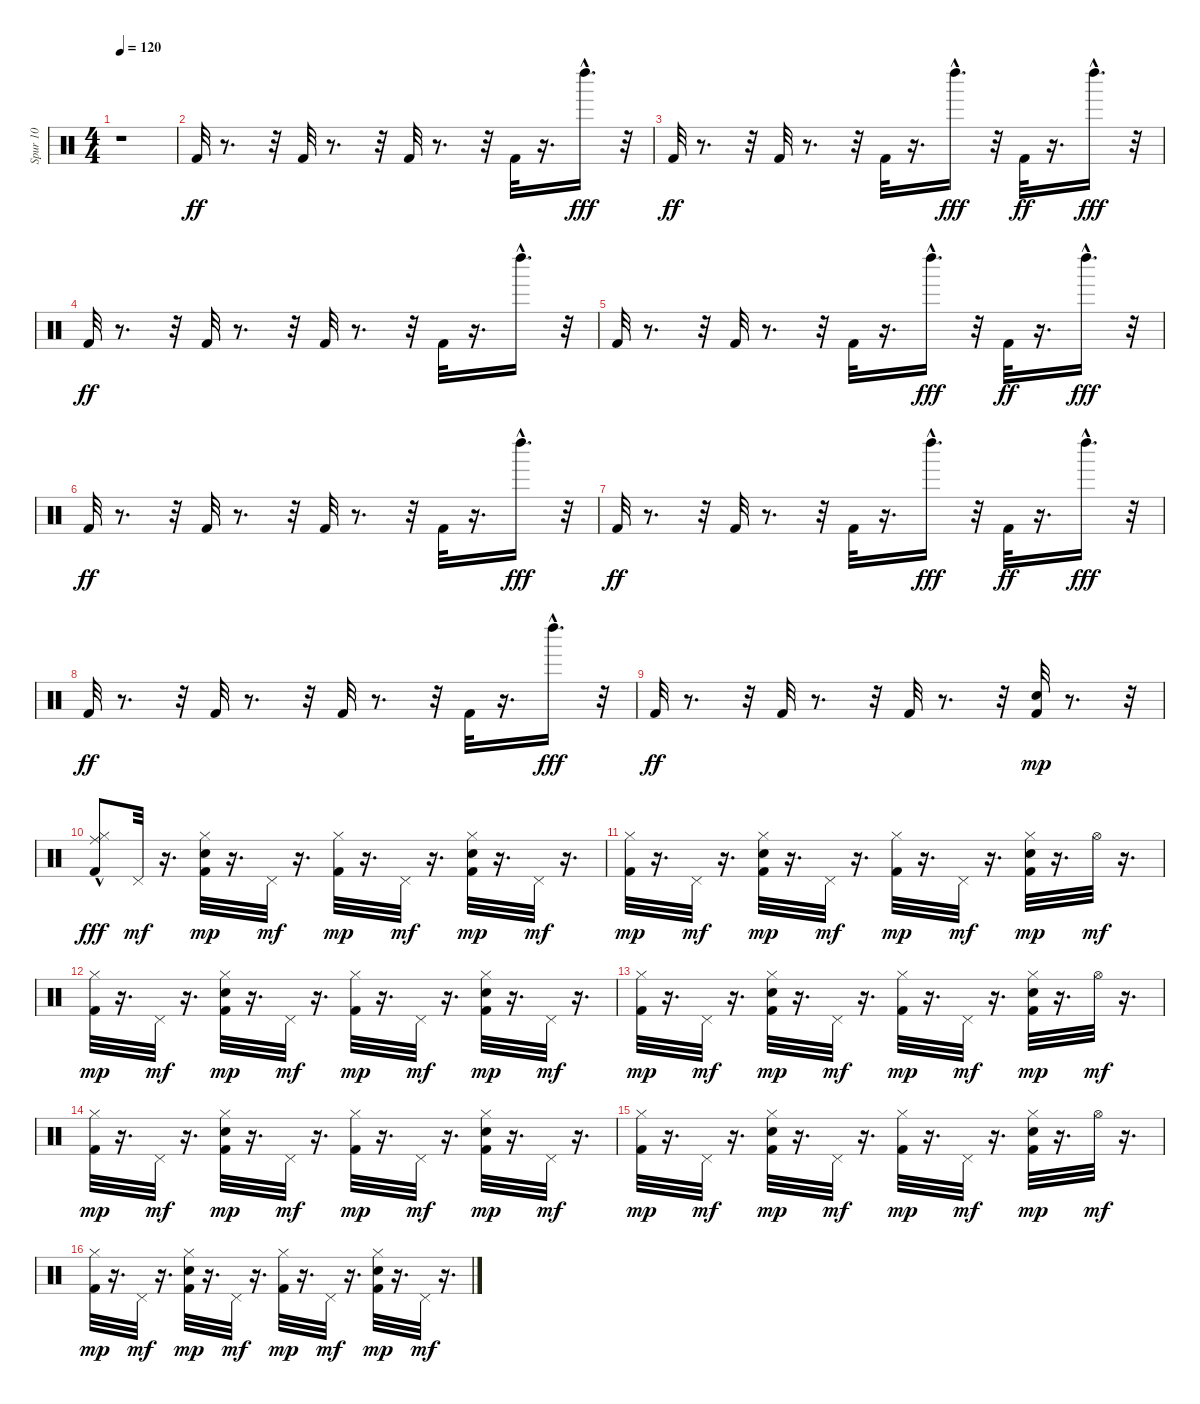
\track ("Spur 10" "Spur 10") {instrument percussion}
\staff {score}
\articulation defaults
\ts (4 4)
\tempo 120
\clef neutral
\ks c
r.1{dy ff} |
"Kick (hit) 2".32 r.8{d} r.32 "Kick (hit) 2".32 r.8{d} r.32 "Kick (hit) 2".32 r.8{d} r.32 "Kick (hit) 2".32 r.16{d} "Left Maraca (hit)"{hac}.16{d dy fff} r.32 |
"Kick (hit) 2".32{dy ff} r.8{d} r.32 "Kick (hit) 2".32 r.8{d} r.32 "Kick (hit) 2".32 r.16{d} "Left Maraca (hit)"{hac}.16{d dy fff} r.32 "Kick (hit) 2".32{dy ff} r.16{d} "Left Maraca (hit)"{hac}.16{d dy fff} r.32 |
"Kick (hit) 2".32{dy ff} r.8{d} r.32 "Kick (hit) 2".32 r.8{d} r.32 "Kick (hit) 2".32 r.8{d} r.32 "Kick (hit) 2".32 r.16{d} "Left Maraca (hit)"{hac}.16{d} r.32 |
"Kick (hit) 2".32 r.8{d} r.32 "Kick (hit) 2".32 r.8{d} r.32 "Kick (hit) 2".32 r.16{d} "Left Maraca (hit)"{hac}.16{d dy fff} r.32 "Kick (hit) 2".32{dy ff} r.16{d} "Left Maraca (hit)"{hac}.16{d dy fff} r.32 |
"Kick (hit) 2".32{dy ff} r.8{d} r.32 "Kick (hit) 2".32 r.8{d} r.32 "Kick (hit) 2".32 r.8{d} r.32 "Kick (hit) 2".32 r.16{d} "Left Maraca (hit)"{hac}.16{d dy fff} r.32 |
"Kick (hit) 2".32{dy ff} r.8{d} r.32 "Kick (hit) 2".32 r.8{d} r.32 "Kick (hit) 2".32 r.16{d} "Left Maraca (hit)"{hac}.16{d dy fff} r.32 "Kick (hit) 2".32{dy ff} r.16{d} "Left Maraca (hit)"{hac}.16{d dy fff} r.32 |
"Kick (hit) 2".32{dy ff} r.8{d} r.32 "Kick (hit) 2".32 r.8{d} r.32 "Kick (hit) 2".32 r.8{d} r.32 "Kick (hit) 2".32 r.16{d} "Left Maraca (hit)"{hac}.16{d dy fff} r.32 |
"Kick (hit) 2".32{dy ff} r.8{d} r.32 "Kick (hit) 2".32 r.8{d} r.32 "Kick (hit) 2".32 r.8{d} r.32 ("Kick (hit) 2" "Electric Snare (hit)").32{dy mp} r.8{d} r.32 |
("Kick (hit) 2" "Hi-Hat (closed)" "Ride (middle)"{hac}).8{dy fff} "Pedal Hi-Hat (hit)".32{dy mf} r.16{d} ("Electric Snare (hit)" "Kick (hit) 2" "Hi-Hat (closed)").32{dy mp} r.16{d} "Pedal Hi-Hat (hit)".32{dy mf} r.16{d} ("Kick (hit) 2" "Hi-Hat (closed)").32{dy mp} r.16{d} "Pedal Hi-Hat (hit)".32{dy mf} r.16{d} ("Kick (hit) 2" "Electric Snare (hit)" "Hi-Hat (closed)").32{dy mp} r.16{d} "Pedal Hi-Hat (hit)".32{dy mf} r.16{d} |
("Kick (hit) 2" "Hi-Hat (closed)").32{dy mp} r.16{d} "Pedal Hi-Hat (hit)".32{dy mf} r.16{d} ("Kick (hit) 2" "Electric Snare (hit)" "Hi-Hat (closed)").32{dy mp} r.16{d} "Pedal Hi-Hat (hit)".32{dy mf} r.16{d} ("Kick (hit) 2" "Hi-Hat (closed)").32{dy mp} r.16{d} "Pedal Hi-Hat (hit)".32{dy mf} r.16{d} ("Kick (hit) 2" "Electric Snare (hit)" "Hi-Hat (closed)").32{dy mp} r.16{d} "Hi-Hat (open)".32{dy mf} r.16{d} |
("Kick (hit) 2" "Hi-Hat (closed)").32{dy mp} r.16{d} "Pedal Hi-Hat (hit)".32{dy mf} r.16{d} ("Kick (hit) 2" "Electric Snare (hit)" "Hi-Hat (closed)").32{dy mp} r.16{d} "Pedal Hi-Hat (hit)".32{dy mf} r.16{d} ("Kick (hit) 2" "Hi-Hat (closed)").32{dy mp} r.16{d} "Pedal Hi-Hat (hit)".32{dy mf} r.16{d} ("Kick (hit) 2" "Electric Snare (hit)" "Hi-Hat (closed)").32{dy mp} r.16{d} "Pedal Hi-Hat (hit)".32{dy mf} r.16{d} |
("Kick (hit) 2" "Hi-Hat (closed)").32{dy mp} r.16{d} "Pedal Hi-Hat (hit)".32{dy mf} r.16{d} ("Kick (hit) 2" "Electric Snare (hit)" "Hi-Hat (closed)").32{dy mp} r.16{d} "Pedal Hi-Hat (hit)".32{dy mf} r.16{d} ("Kick (hit) 2" "Hi-Hat (closed)").32{dy mp} r.16{d} "Pedal Hi-Hat (hit)".32{dy mf} r.16{d} ("Kick (hit) 2" "Electric Snare (hit)" "Hi-Hat (closed)").32{dy mp} r.16{d} "Hi-Hat (open)".32{dy mf} r.16{d} |
("Kick (hit) 2" "Hi-Hat (closed)").32{dy mp} r.16{d} "Pedal Hi-Hat (hit)".32{dy mf} r.16{d} ("Kick (hit) 2" "Electric Snare (hit)" "Hi-Hat (closed)").32{dy mp} r.16{d} "Pedal Hi-Hat (hit)".32{dy mf} r.16{d} ("Kick (hit) 2" "Hi-Hat (closed)").32{dy mp} r.16{d} "Pedal Hi-Hat (hit)".32{dy mf} r.16{d} ("Kick (hit) 2" "Electric Snare (hit)" "Hi-Hat (closed)").32{dy mp} r.16{d} "Pedal Hi-Hat (hit)".32{dy mf} r.16{d} |
("Kick (hit) 2" "Hi-Hat (closed)").32{dy mp} r.16{d} "Pedal Hi-Hat (hit)".32{dy mf} r.16{d} ("Kick (hit) 2" "Electric Snare (hit)" "Hi-Hat (closed)").32{dy mp} r.16{d} "Pedal Hi-Hat (hit)".32{dy mf} r.16{d} ("Kick (hit) 2" "Hi-Hat (closed)").32{dy mp} r.16{d} "Pedal Hi-Hat (hit)".32{dy mf} r.16{d} ("Kick (hit) 2" "Electric Snare (hit)" "Hi-Hat (closed)").32{dy mp} r.16{d} "Hi-Hat (open)".32{dy mf} r.16{d} |
("Kick (hit) 2" "Hi-Hat (closed)").32{dy mp} r.16{d} "Pedal Hi-Hat (hit)".32{dy mf} r.16{d} ("Kick (hit) 2" "Electric Snare (hit)" "Hi-Hat (closed)").32{dy mp} r.16{d} "Pedal Hi-Hat (hit)".32{dy mf} r.16{d} ("Kick (hit) 2" "Hi-Hat (closed)").32{dy mp} r.16{d} "Pedal Hi-Hat (hit)".32{dy mf} r.16{d} ("Kick (hit) 2" "Electric Snare (hit)" "Hi-Hat (closed)").32{dy mp} r.16{d} "Pedal Hi-Hat (hit)".32{dy mf} r.16{d}
